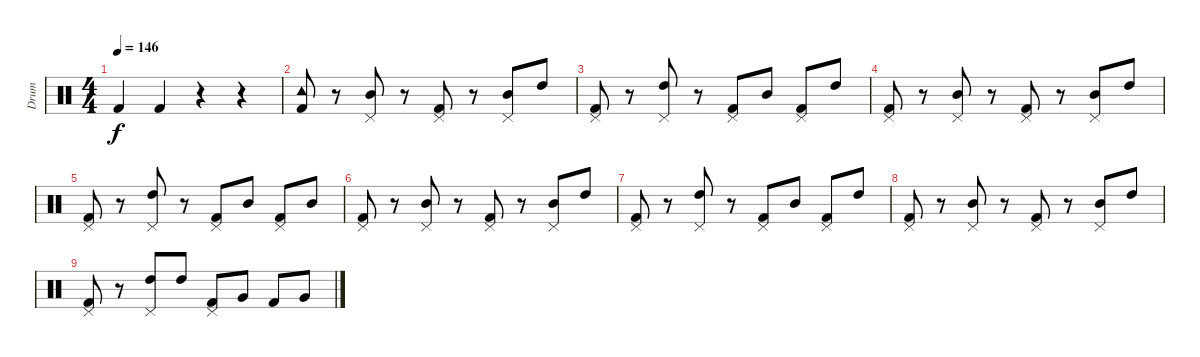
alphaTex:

\track ("Drum" "Drum") {instrument percussion}
\staff {score}
\articulation defaults
\ts (4 4)
\tempo 146
\clef neutral
\ks c "Kick (hit) 2".4{dy f} "Kick (hit) 2".4
r.4 r.4 |
("Tambourine (hit)" "Kick (hit) 2").8 r.8 ("Pedal Hi-Hat (hit)" "Mid Tom (hit)").8 r.8 ("Pedal Hi-Hat (hit)" "Kick (hit) 2").8 r.8 ("Pedal Hi-Hat (hit)" "Mid Tom (hit)").8 "High Tom (hit)".8 |
("Pedal Hi-Hat (hit)" "Kick (hit) 2").8 r.8 ("Pedal Hi-Hat (hit)" "High Tom (hit)").8 r.8 ("Pedal Hi-Hat (hit)" "Kick (hit) 2").8 "Mid Tom (hit)".8 ("Pedal Hi-Hat (hit)" "Kick (hit) 2").8 "High Tom (hit)".8 |
("Pedal Hi-Hat (hit)" "Kick (hit) 2").8 r.8 ("Pedal Hi-Hat (hit)" "Mid Tom (hit)").8 r.8 ("Pedal Hi-Hat (hit)" "Kick (hit) 2").8 r.8 ("Pedal Hi-Hat (hit)" "Mid Tom (hit)").8 "High Tom (hit)".8 |
("Pedal Hi-Hat (hit)" "Kick (hit) 2").8 r.8 ("Pedal Hi-Hat (hit)" "High Tom (hit)").8 r.8 ("Pedal Hi-Hat (hit)" "Kick (hit) 2").8 "Mid Tom (hit)".8 ("Pedal Hi-Hat (hit)" "Kick (hit) 2").8 "Mid Tom (hit)".8 |
("Pedal Hi-Hat (hit)" "Kick (hit) 2").8 r.8 ("Pedal Hi-Hat (hit)" "Mid Tom (hit)").8 r.8 ("Pedal Hi-Hat (hit)" "Kick (hit) 2").8 r.8 ("Pedal Hi-Hat (hit)" "Mid Tom (hit)").8 "High Tom (hit)".8 |
("Pedal Hi-Hat (hit)" "Kick (hit) 2").8 r.8 ("Pedal Hi-Hat (hit)" "High Tom (hit)").8 r.8 ("Pedal Hi-Hat (hit)" "Kick (hit) 2").8 "Mid Tom (hit)".8 ("Pedal Hi-Hat (hit)" "Kick (hit) 2").8 "High Tom (hit)".8 |
("Pedal Hi-Hat (hit)" "Kick (hit) 2").8 r.8 ("Pedal Hi-Hat (hit)" "Mid Tom (hit)").8 r.8 ("Pedal Hi-Hat (hit)" "Kick (hit) 2").8 r.8 ("Pedal Hi-Hat (hit)" "Mid Tom (hit)").8 "High Tom (hit)".8 |
("Pedal Hi-Hat (hit)" "Kick (hit) 2").8 r.8 ("Pedal Hi-Hat (hit)" "High Tom (hit)").8 "High Tom (hit)".8 ("Pedal Hi-Hat (hit)" "Kick (hit) 2").8 "Very Low Tom (hit)".8 "Kick (hit) 2".8 "Very Low Tom (hit)".8
